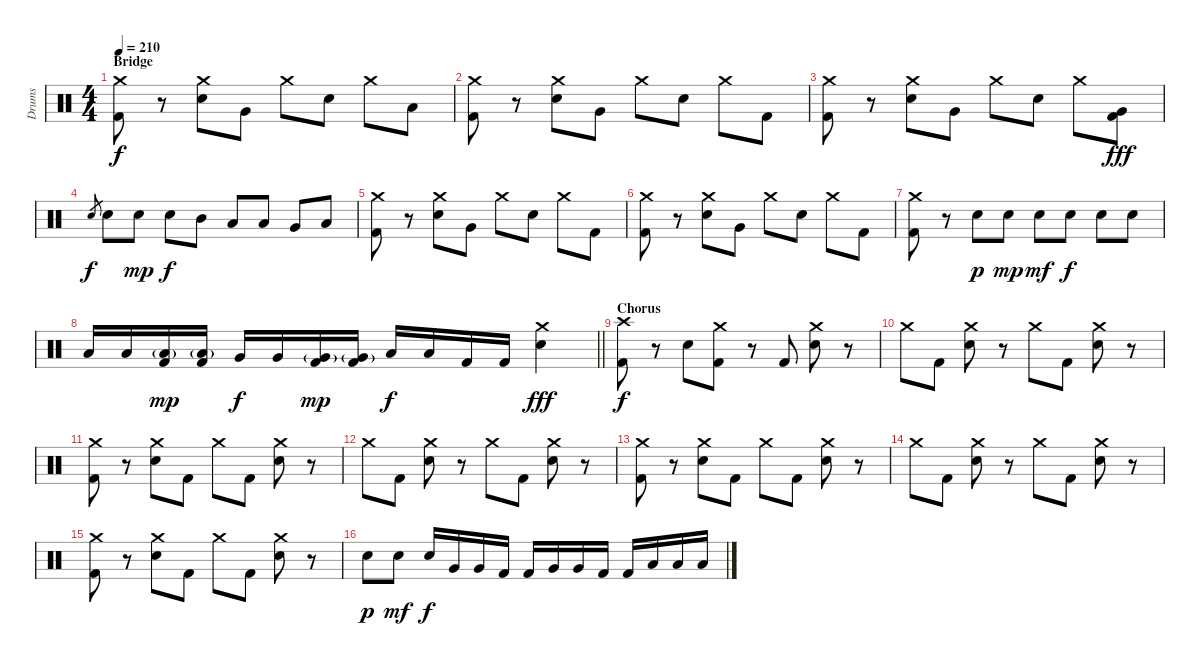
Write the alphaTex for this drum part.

\track ("Drums" "Drums") {instrument percussion}
\staff {score}
\articulation defaults
\ts (4 4)
\section ("" "Bridge")
\tempo 210
\clef neutral
\ks c
("Crash medium (hit)" "Kick (hit) 2").8{dy f} r.8 ("Crash medium (hit)" "Electric Snare (hit)").8 "Very Low Tom (hit)".8 "Crash medium (hit)".8 "Electric Snare (hit)".8 "Crash medium (hit)".8 "Low Floor Tom (hit)".8 |
("Crash medium (hit)" "Kick (hit) 2").8 r.8 ("Crash medium (hit)" "Electric Snare (hit)").8 "Very Low Tom (hit)".8 "Crash medium (hit)".8 "Electric Snare (hit)".8 "Crash medium (hit)".8 "Kick (hit) 2".8 |
("Crash medium (hit)" "Kick (hit) 2").8 r.8 ("Crash medium (hit)" "Electric Snare (hit)").8 "Very Low Tom (hit)".8 "Crash medium (hit)".8 "Electric Snare (hit)".8 "Crash medium (hit)".8 ("Very Low Tom (hit)" "Kick (hit) 2").8{dy fff} |
"Electric Snare (hit)".8{gr dy f} "Electric Snare (hit)".8 "Electric Snare (hit)".8{dy mp} "Electric Snare (hit)".8{dy f} "Mid Tom (hit)".8 "Low Tom (hit)".8 "Low Tom (hit)".8 "Very Low Tom (hit)".8 "Low Floor Tom (hit)".8 |
("Crash medium (hit)" "Kick (hit) 2").8 r.8 ("Crash medium (hit)" "Electric Snare (hit)").8 "Very Low Tom (hit)".8 "Crash medium (hit)".8 "Electric Snare (hit)".8 "Crash medium (hit)".8 "Kick (hit) 2".8 |
("Crash medium (hit)" "Kick (hit) 2").8 r.8 ("Crash medium (hit)" "Electric Snare (hit)").8 "Very Low Tom (hit)".8 "Crash medium (hit)".8 "Electric Snare (hit)".8 "Crash medium (hit)".8 "Kick (hit) 2".8 |
("Crash medium (hit)" "Kick (hit) 2").8 r.8 "Electric Snare (hit)".8{dy p} "Electric Snare (hit)".8{dy mp} "Electric Snare (hit)".8{dy mf} "Electric Snare (hit)".8{dy f} "Electric Snare (hit)".8 "Electric Snare (hit)".8 |
\barLineRight lightlight "Low Tom (hit)".16 "Low Tom (hit)".16
("Low Tom (hit)"{g} "Kick (hit) 2").16{dy mp} ("Low Tom (hit)"{g} "Kick (hit) 2").16 "Very Low Tom (hit)".16{dy f} "Very Low Tom (hit)".16 ("Very Low Tom (hit)"{g} "Kick (hit) 2").16{dy mp} ("Very Low Tom (hit)"{g} "Kick (hit) 2").16 "Low Floor Tom (hit)".16{dy f} "Low Floor Tom (hit)".16 "Kick (hit) 2".16 "Kick (hit) 2".16 ("Crash medium (hit)" "Electric Snare (hit)").4{dy fff} |
\section ("" "Chorus")
("Crash high (hit)" "Kick (hit) 2").8{dy f} r.8 "Electric Snare (hit)".8 ("Crash medium (hit)" "Kick (hit) 2").8 r.8 "Kick (hit) 2".8 ("Crash medium (hit)" "Electric Snare (hit)").8 r.8 |
"Crash medium (hit)".8 "Kick (hit) 2".8 ("Crash medium (hit)" "Electric Snare (hit)").8 r.8 "Crash medium (hit)".8 "Kick (hit) 2".8 ("Crash medium (hit)" "Electric Snare (hit)").8 r.8 |
("Crash medium (hit)" "Kick (hit) 2").8 r.8 ("Crash medium (hit)" "Electric Snare (hit)").8 "Kick (hit) 2".8 "Crash medium (hit)".8 "Kick (hit) 2".8 ("Crash medium (hit)" "Electric Snare (hit)").8 r.8 |
"Crash medium (hit)".8 "Kick (hit) 2".8 ("Crash medium (hit)" "Electric Snare (hit)").8 r.8 "Crash medium (hit)".8 "Kick (hit) 2".8 ("Crash medium (hit)" "Electric Snare (hit)").8 r.8 |
("Crash medium (hit)" "Kick (hit) 2").8 r.8 ("Crash medium (hit)" "Electric Snare (hit)").8 "Kick (hit) 2".8 "Crash medium (hit)".8 "Kick (hit) 2".8 ("Crash medium (hit)" "Electric Snare (hit)").8 r.8 |
"Crash medium (hit)".8 "Kick (hit) 2".8 ("Crash medium (hit)" "Electric Snare (hit)").8 r.8 "Crash medium (hit)".8 "Kick (hit) 2".8 ("Crash medium (hit)" "Electric Snare (hit)").8 r.8 |
("Crash medium (hit)" "Kick (hit) 2").8 r.8 ("Crash medium (hit)" "Electric Snare (hit)").8 "Kick (hit) 2".8 "Crash medium (hit)".8 "Kick (hit) 2".8 ("Crash medium (hit)" "Electric Snare (hit)").8 r.8 |
"Electric Snare (hit)".8{dy p} "Electric Snare (hit)".8{dy mf} "Electric Snare (hit)".16{dy f} "Very Low Tom (hit)".16 "Very Low Tom (hit)".16 "Kick (hit) 2".16 "Kick (hit) 2".16 "Very Low Tom (hit)".16 "Very Low Tom (hit)".16 "Kick (hit) 2".16 "Kick (hit) 2".16 "Low Tom (hit)".16 "Low Tom (hit)".16 "Low Tom (hit)".16
